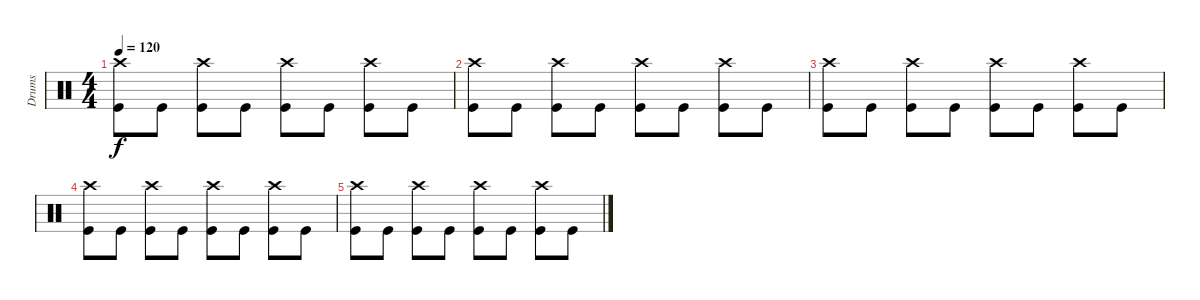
\track ("Drums" "Drums") {instrument percussion}
\staff {score}
\articulation defaults
\ts (4 4)
\tempo 120
\clef neutral
\ks c
("Crash high (hit)" "Kick (hit)").8{dy f} "Kick (hit)".8 ("Crash high (hit)" "Kick (hit)").8 "Kick (hit)".8 ("Crash high (hit)" "Kick (hit)").8 "Kick (hit)".8 ("Crash high (hit)" "Kick (hit)").8 "Kick (hit)".8 |
("Crash high (hit)" "Kick (hit)").8 "Kick (hit)".8 ("Crash high (hit)" "Kick (hit)").8 "Kick (hit)".8 ("Crash high (hit)" "Kick (hit)").8 "Kick (hit)".8 ("Crash high (hit)" "Kick (hit)").8 "Kick (hit)".8 |
("Crash high (hit)" "Kick (hit)").8 "Kick (hit)".8 ("Crash high (hit)" "Kick (hit)").8 "Kick (hit)".8 ("Crash high (hit)" "Kick (hit)").8 "Kick (hit)".8 ("Crash high (hit)" "Kick (hit)").8 "Kick (hit)".8 |
("Crash high (hit)" "Kick (hit)").8 "Kick (hit)".8 ("Crash high (hit)" "Kick (hit)").8 "Kick (hit)".8 ("Crash high (hit)" "Kick (hit)").8 "Kick (hit)".8 ("Crash high (hit)" "Kick (hit)").8 "Kick (hit)".8 |
("Crash high (hit)" "Kick (hit)").8 "Kick (hit)".8 ("Crash high (hit)" "Kick (hit)").8 "Kick (hit)".8 ("Crash high (hit)" "Kick (hit)").8 "Kick (hit)".8 ("Crash high (hit)" "Kick (hit)").8 "Kick (hit)".8
